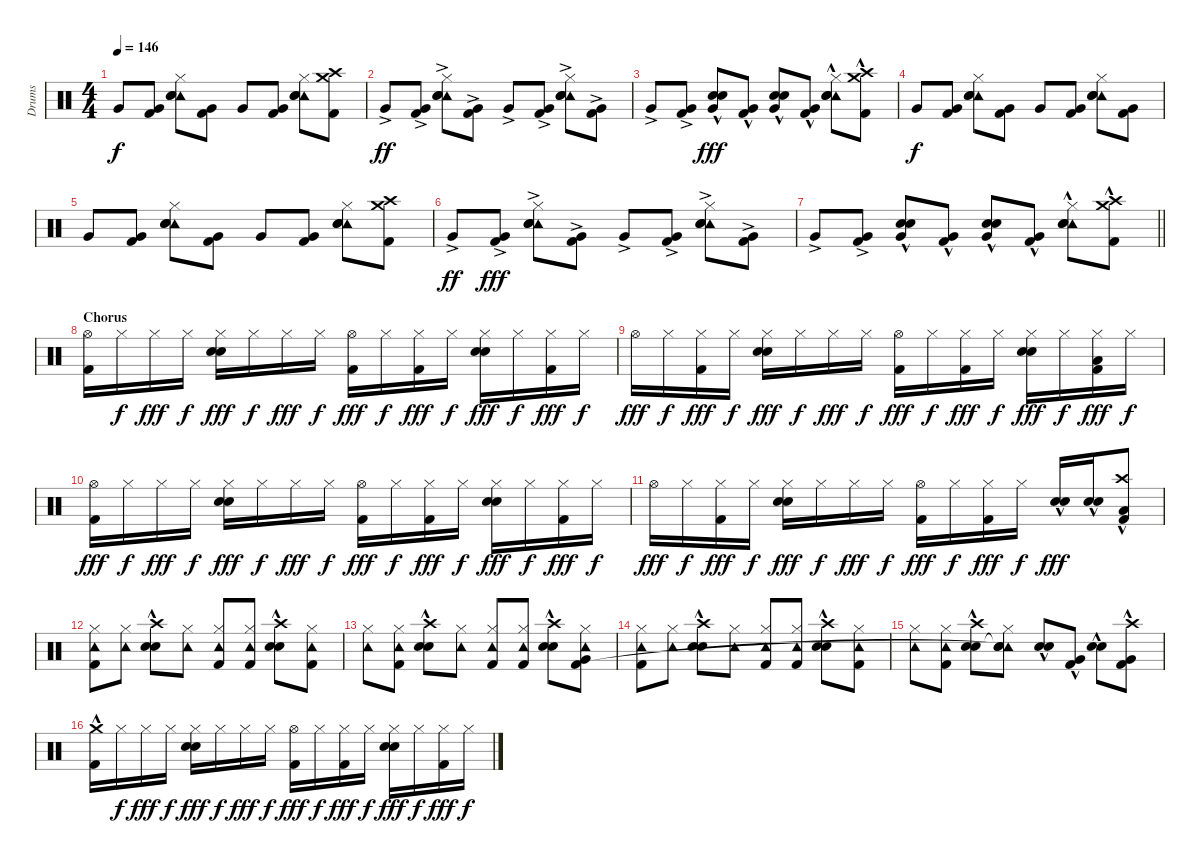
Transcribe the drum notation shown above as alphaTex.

\track ("Drums" "Drums") {instrument percussion}
\staff {score}
\articulation defaults
\ts (4 4)
\tempo 146
\clef neutral
\ks c "Very Low Tom (hit)".8{dy f}
("Very Low Tom (hit)" "Kick (hit) 2").8 ("Hi-Hat (closed)" "Tambourine (hit)" "Electric Snare (hit)" "Electric Snare (hit)").8 ("Very Low Tom (hit)" "Kick (hit) 2").8 "Very Low Tom (hit)".8 ("Very Low Tom (hit)" "Kick (hit) 2").8 ("Hi-Hat (closed)" "Tambourine (hit)" "Electric Snare (hit)" "Electric Snare (hit)").8 ("Crash high (hit)" "Crash medium (hit)" "Kick (hit) 2").8 |
"Very Low Tom (hit)"{ac}.8{dy ff} ("Very Low Tom (hit)"{ac} "Kick (hit) 2"{ac}).8 ("Hi-Hat (closed)" "Tambourine (hit)"{ac} "Electric Snare (hit)"{ac} "Electric Snare (hit)"{ac}).8 ("Very Low Tom (hit)"{ac} "Kick (hit) 2"{ac}).8 "Very Low Tom (hit)"{ac}.8 ("Very Low Tom (hit)"{ac} "Kick (hit) 2"{ac}).8 ("Hi-Hat (closed)" "Tambourine (hit)"{ac} "Electric Snare (hit)"{ac} "Electric Snare (hit)"{ac}).8 ("Very Low Tom (hit)"{ac} "Kick (hit) 2"{ac}).8 |
"Very Low Tom (hit)"{ac}.8 ("Very Low Tom (hit)"{ac} "Kick (hit) 2"{ac}).8 ("Electric Snare (hit)"{hac} "Electric Snare (hit)"{hac} "Very Low Tom (hit)"{hac}).8{dy fff} ("Very Low Tom (hit)"{hac} "Kick (hit) 2"{hac}).8 ("Electric Snare (hit)"{hac} "Electric Snare (hit)"{hac} "Very Low Tom (hit)"{hac}).8 ("Very Low Tom (hit)"{hac} "Kick (hit) 2"{hac}).8 ("Hi-Hat (closed)" "Tambourine (hit)"{hac} "Electric Snare (hit)"{hac} "Electric Snare (hit)"{hac}).8 ("Crash high (hit)"{hac} "Crash medium (hit)"{hac} "Kick (hit) 2"{hac}).8 |
"Very Low Tom (hit)".8{dy f} ("Very Low Tom (hit)" "Kick (hit) 2").8 ("Hi-Hat (closed)" "Tambourine (hit)" "Electric Snare (hit)" "Electric Snare (hit)").8 ("Very Low Tom (hit)" "Kick (hit) 2").8 "Very Low Tom (hit)".8 ("Very Low Tom (hit)" "Kick (hit) 2").8 ("Hi-Hat (closed)" "Tambourine (hit)" "Electric Snare (hit)" "Electric Snare (hit)").8 ("Very Low Tom (hit)" "Kick (hit) 2").8 |
"Very Low Tom (hit)".8 ("Very Low Tom (hit)" "Kick (hit) 2").8 ("Hi-Hat (closed)" "Tambourine (hit)" "Electric Snare (hit)" "Electric Snare (hit)").8 ("Very Low Tom (hit)" "Kick (hit) 2").8 "Very Low Tom (hit)".8 ("Very Low Tom (hit)" "Kick (hit) 2").8 ("Hi-Hat (closed)" "Tambourine (hit)" "Electric Snare (hit)" "Electric Snare (hit)").8 ("Crash high (hit)" "Crash medium (hit)" "Kick (hit) 2").8 |
"Very Low Tom (hit)"{ac}.8{dy ff} ("Very Low Tom (hit)"{ac} "Kick (hit) 2"{ac}).8{dy fff} ("Hi-Hat (closed)" "Tambourine (hit)"{ac} "Electric Snare (hit)"{ac} "Electric Snare (hit)"{ac}).8 ("Very Low Tom (hit)"{ac} "Kick (hit) 2"{ac}).8 "Very Low Tom (hit)"{ac}.8 ("Very Low Tom (hit)"{ac} "Kick (hit) 2"{ac}).8 ("Hi-Hat (closed)" "Tambourine (hit)"{ac} "Electric Snare (hit)"{ac} "Electric Snare (hit)"{ac}).8 ("Very Low Tom (hit)"{ac} "Kick (hit) 2"{ac}).8 |
\barLineRight lightlight "Very Low Tom (hit)"{ac}.8
("Very Low Tom (hit)"{ac} "Kick (hit) 2"{ac}).8 ("Electric Snare (hit)"{hac} "Electric Snare (hit)"{hac} "Very Low Tom (hit)"{hac}).8 ("Very Low Tom (hit)"{hac} "Kick (hit) 2"{hac}).8 ("Electric Snare (hit)"{hac} "Electric Snare (hit)"{hac} "Very Low Tom (hit)"{hac}).8 ("Very Low Tom (hit)"{hac} "Kick (hit) 2"{hac}).8 ("Hi-Hat (closed)" "Tambourine (hit)"{hac} "Electric Snare (hit)"{hac} "Electric Snare (hit)"{hac}).8 ("Crash high (hit)"{hac} "Crash medium (hit)"{hac} "Kick (hit) 2"{hac}).8 |
\section ("" "Chorus")
("Hi-Hat (open)" "Kick (hit) 2").16 "Hi-Hat (closed)".16{dy f} "Hi-Hat (closed)".16{dy fff} "Hi-Hat (closed)".16{dy f} ("Hi-Hat (closed)" "Electric Snare (hit)" "Electric Snare (hit)").16{dy fff} "Hi-Hat (closed)".16{dy f} "Hi-Hat (closed)".16{dy fff} "Hi-Hat (closed)".16{dy f} ("Hi-Hat (open)" "Kick (hit) 2").16{dy fff} "Hi-Hat (closed)".16{dy f} ("Hi-Hat (closed)" "Kick (hit) 2").16{dy fff} "Hi-Hat (closed)".16{dy f} ("Hi-Hat (closed)" "Electric Snare (hit)" "Electric Snare (hit)").16{dy fff} "Hi-Hat (closed)".16{dy f} ("Hi-Hat (closed)" "Kick (hit) 2").16{dy fff} "Hi-Hat (closed)".16{dy f} |
"Hi-Hat (open)".16{dy fff} "Hi-Hat (closed)".16{dy f} ("Hi-Hat (closed)" "Kick (hit) 2").16{dy fff} "Hi-Hat (closed)".16{dy f} ("Hi-Hat (closed)" "Electric Snare (hit)" "Electric Snare (hit)").16{dy fff} "Hi-Hat (closed)".16{dy f} "Hi-Hat (closed)".16{dy fff} "Hi-Hat (closed)".16{dy f} ("Hi-Hat (open)" "Kick (hit) 2").16{dy fff} "Hi-Hat (closed)".16{dy f} ("Hi-Hat (closed)" "Kick (hit) 2").16{dy fff} "Hi-Hat (closed)".16{dy f} ("Hi-Hat (closed)" "Electric Snare (hit)" "Electric Snare (hit)").16{dy fff} "Hi-Hat (closed)".16{dy f} ("Hi-Hat (closed)" "Low Tom (hit)" "Kick (hit) 2").16{dy fff} "Hi-Hat (closed)".16{dy f} |
("Hi-Hat (open)" "Kick (hit) 2").16{dy fff} "Hi-Hat (closed)".16{dy f} "Hi-Hat (closed)".16{dy fff} "Hi-Hat (closed)".16{dy f} ("Hi-Hat (closed)" "Electric Snare (hit)" "Electric Snare (hit)").16{dy fff} "Hi-Hat (closed)".16{dy f} "Hi-Hat (closed)".16{dy fff} "Hi-Hat (closed)".16{dy f} ("Hi-Hat (open)" "Kick (hit) 2").16{dy fff} "Hi-Hat (closed)".16{dy f} ("Hi-Hat (closed)" "Kick (hit) 2").16{dy fff} "Hi-Hat (closed)".16{dy f} ("Hi-Hat (closed)" "Electric Snare (hit)" "Electric Snare (hit)").16{dy fff} "Hi-Hat (closed)".16{dy f} ("Hi-Hat (closed)" "Kick (hit) 2").16{dy fff} "Hi-Hat (closed)".16{dy f} |
"Hi-Hat (open)".16{dy fff} "Hi-Hat (closed)".16{dy f} ("Hi-Hat (closed)" "Kick (hit) 2").16{dy fff} "Hi-Hat (closed)".16{dy f} ("Hi-Hat (closed)" "Electric Snare (hit)" "Electric Snare (hit)").16{dy fff} "Hi-Hat (closed)".16{dy f} "Hi-Hat (closed)".16{dy fff} "Hi-Hat (closed)".16{dy f} ("Hi-Hat (open)" "Kick (hit) 2").16{dy fff} "Hi-Hat (closed)".16{dy f} ("Hi-Hat (closed)" "Kick (hit) 2").16{dy fff} "Hi-Hat (closed)".16{dy f} ("Electric Snare (hit)"{hac} "Electric Snare (hit)"{hac}).16{dy fff} ("Electric Snare (hit)"{hac} "Electric Snare (hit)"{hac}).16 ("Crash high (hit)"{hac} "Low Tom (hit)"{hac} "Kick (hit) 2"{hac}).8 |
("Tambourine (hit)" "Hi-Hat (closed)" "Kick (hit) 2").8 ("Tambourine (hit)" "Hi-Hat (closed)").8 ("Crash high (hit)"{hac} "Electric Snare (hit)" "Electric Snare (hit)").8 ("Tambourine (hit)" "Hi-Hat (closed)").8 ("Tambourine (hit)" "Hi-Hat (closed)" "Kick (hit) 2").8 ("Tambourine (hit)" "Hi-Hat (closed)" "Kick (hit) 2").8 ("Crash high (hit)"{hac} "Electric Snare (hit)" "Electric Snare (hit)").8 ("Tambourine (hit)" "Hi-Hat (closed)" "Kick (hit) 2").8 |
("Tambourine (hit)" "Hi-Hat (closed)").8 ("Tambourine (hit)" "Hi-Hat (closed)" "Kick (hit) 2").8 ("Crash high (hit)"{hac} "Electric Snare (hit)" "Electric Snare (hit)").8 ("Tambourine (hit)" "Hi-Hat (closed)").8 ("Tambourine (hit)" "Hi-Hat (closed)" "Kick (hit) 2").8 ("Tambourine (hit)" "Hi-Hat (closed)" "Kick (hit) 2").8 ("Crash high (hit)"{hac} "Electric Snare (hit)" "Electric Snare (hit)").8 ("Tambourine (hit)" "Hi-Hat (closed)" "Very Low Tom (hit)" "Kick (hit) 2").8 |
("Tambourine (hit)" "Hi-Hat (closed)" "Kick (hit) 2").8 ("Tambourine (hit)" "Hi-Hat (closed)").8 ("Crash high (hit)"{hac} "Electric Snare (hit)" "Electric Snare (hit)").8 ("Tambourine (hit)" "Hi-Hat (closed)").8 ("Tambourine (hit)" "Hi-Hat (closed)" "Kick (hit) 2").8 ("Tambourine (hit)" "Hi-Hat (closed)" "Kick (hit) 2").8 ("Crash high (hit)"{hac} "Electric Snare (hit)" "Electric Snare (hit)").8 ("Tambourine (hit)" "Hi-Hat (closed)" "Kick (hit) 2").8 |
("Tambourine (hit)" "Hi-Hat (closed)").8 ("Tambourine (hit)" "Hi-Hat (closed)" "Kick (hit) 2").8 ("Crash high (hit)"{hac} "Electric Snare (hit)" "Electric Snare (hit)").8 ("Tambourine (hit)" "Hi-Hat (closed)" "Snare (hit)"{t} "Snare (hit)"{t}).8 ("Electric Snare (hit)"{hac} "Electric Snare (hit)"{hac}).8 ("Very Low Tom (hit)"{hac} "Kick (hit) 2"{hac}).8 ("Electric Snare (hit)"{hac} "Electric Snare (hit)"{hac}).8 ("Crash high (hit)"{hac} "Very Low Tom (hit)"{hac} "Kick (hit) 2"{hac}).8 |
("Crash medium (hit)"{hac} "Kick (hit) 2"{hac}).16 "Hi-Hat (closed)".16{dy f} "Hi-Hat (closed)".16{dy fff} "Hi-Hat (closed)".16{dy f} ("Hi-Hat (closed)" "Electric Snare (hit)" "Electric Snare (hit)").16{dy fff} "Hi-Hat (closed)".16{dy f} "Hi-Hat (closed)".16{dy fff} "Hi-Hat (closed)".16{dy f} ("Hi-Hat (open)" "Kick (hit) 2").16{dy fff} "Hi-Hat (closed)".16{dy f} ("Hi-Hat (closed)" "Kick (hit) 2").16{dy fff} "Hi-Hat (closed)".16{dy f} ("Hi-Hat (closed)" "Electric Snare (hit)" "Electric Snare (hit)").16{dy fff} "Hi-Hat (closed)".16{dy f} ("Hi-Hat (closed)" "Kick (hit) 2").16{dy fff} "Hi-Hat (closed)".16{dy f}
